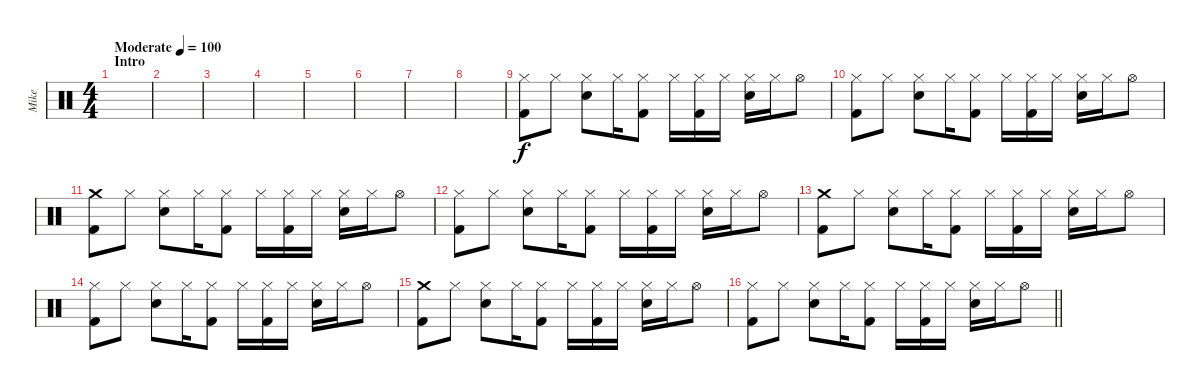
\track ("Mike" "Mike") {instrument percussion}
\staff {score}
\articulation defaults
\ts (4 4)
\section ("" "Intro")
\tempo (100 "Moderate")
\clef neutral
\ks c
|
|
|
|
|
|
|
|
("Hi-Hat (closed)" "Kick (hit) 2").8 "Hi-Hat (closed)".8 ("Hi-Hat (closed)" "Electric Snare (hit)").8 "Hi-Hat (closed)".16 ("Hi-Hat (closed)" "Kick (hit) 2").8 "Hi-Hat (closed)".16 ("Hi-Hat (closed)" "Kick (hit) 2").16 "Hi-Hat (closed)".16 ("Hi-Hat (closed)" "Electric Snare (hit)").16 "Hi-Hat (closed)".16 "Hi-Hat (open)".8 |
("Hi-Hat (closed)" "Kick (hit) 2").8 "Hi-Hat (closed)".8 ("Hi-Hat (closed)" "Electric Snare (hit)").8 "Hi-Hat (closed)".16 ("Hi-Hat (closed)" "Kick (hit) 2").8 "Hi-Hat (closed)".16 ("Hi-Hat (closed)" "Kick (hit) 2").16 "Hi-Hat (closed)".16 ("Hi-Hat (closed)" "Electric Snare (hit)").16 "Hi-Hat (closed)".16 "Hi-Hat (open)".8 |
("Crash medium (hit)" "Kick (hit) 2").8 "Hi-Hat (closed)".8 ("Hi-Hat (closed)" "Electric Snare (hit)").8 "Hi-Hat (closed)".16 ("Hi-Hat (closed)" "Kick (hit) 2").8 "Hi-Hat (closed)".16 ("Hi-Hat (closed)" "Kick (hit) 2").16 "Hi-Hat (closed)".16 ("Hi-Hat (closed)" "Electric Snare (hit)").16 "Hi-Hat (closed)".16 "Hi-Hat (open)".8 |
("Hi-Hat (closed)" "Kick (hit) 2").8 "Hi-Hat (closed)".8 ("Hi-Hat (closed)" "Electric Snare (hit)").8 "Hi-Hat (closed)".16 ("Hi-Hat (closed)" "Kick (hit) 2").8 "Hi-Hat (closed)".16 ("Hi-Hat (closed)" "Kick (hit) 2").16 "Hi-Hat (closed)".16 ("Hi-Hat (closed)" "Electric Snare (hit)").16 "Hi-Hat (closed)".16 "Hi-Hat (open)".8 |
("Crash medium (hit)" "Kick (hit) 2").8 "Hi-Hat (closed)".8 ("Hi-Hat (closed)" "Electric Snare (hit)").8 "Hi-Hat (closed)".16 ("Hi-Hat (closed)" "Kick (hit) 2").8 "Hi-Hat (closed)".16 ("Hi-Hat (closed)" "Kick (hit) 2").16 "Hi-Hat (closed)".16 ("Hi-Hat (closed)" "Electric Snare (hit)").16 "Hi-Hat (closed)".16 "Hi-Hat (open)".8 |
("Hi-Hat (closed)" "Kick (hit) 2").8 "Hi-Hat (closed)".8 ("Hi-Hat (closed)" "Electric Snare (hit)").8 "Hi-Hat (closed)".16 ("Hi-Hat (closed)" "Kick (hit) 2").8 "Hi-Hat (closed)".16 ("Hi-Hat (closed)" "Kick (hit) 2").16 "Hi-Hat (closed)".16 ("Hi-Hat (closed)" "Electric Snare (hit)").16 "Hi-Hat (closed)".16 "Hi-Hat (open)".8 |
("Crash medium (hit)" "Kick (hit) 2").8 "Hi-Hat (closed)".8 ("Hi-Hat (closed)" "Electric Snare (hit)").8 "Hi-Hat (closed)".16 ("Hi-Hat (closed)" "Kick (hit) 2").8 "Hi-Hat (closed)".16 ("Hi-Hat (closed)" "Kick (hit) 2").16 "Hi-Hat (closed)".16 ("Hi-Hat (closed)" "Electric Snare (hit)").16 "Hi-Hat (closed)".16 "Hi-Hat (open)".8 |
\barLineRight lightlight
("Hi-Hat (closed)" "Kick (hit) 2").8 "Hi-Hat (closed)".8 ("Hi-Hat (closed)" "Electric Snare (hit)").8 "Hi-Hat (closed)".16 ("Hi-Hat (closed)" "Kick (hit) 2").8 "Hi-Hat (closed)".16 ("Hi-Hat (closed)" "Kick (hit) 2").16 "Hi-Hat (closed)".16 ("Hi-Hat (closed)" "Electric Snare (hit)").16 "Hi-Hat (closed)".16 "Hi-Hat (open)".8
